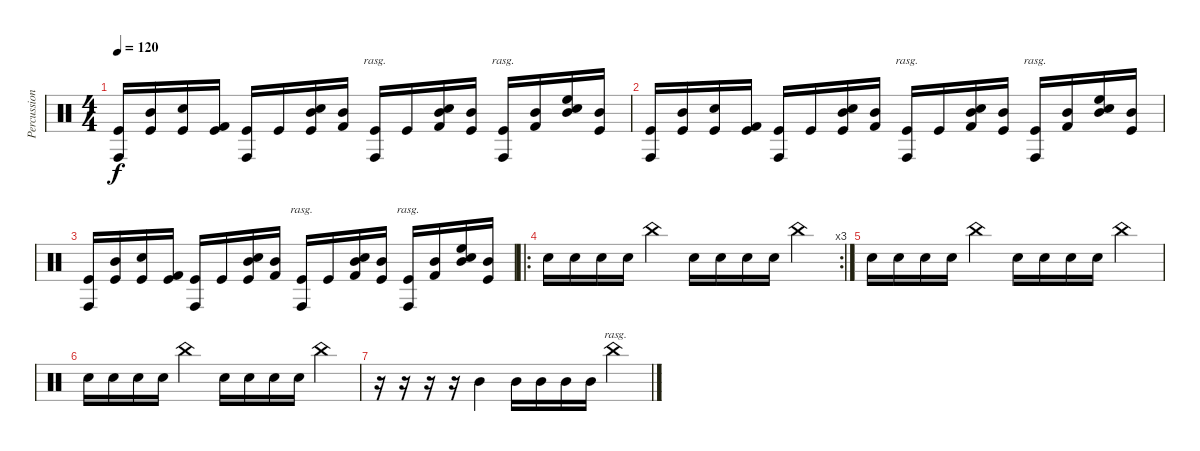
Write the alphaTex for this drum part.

\track ("Percussion" "Percussion") {instrument percussion}
\staff {score}
\articulation defaults
\ts (4 4)
\tempo 120
\clef neutral
\ks c
("Conga high (hit)" "Kick (hit)").16{dy f} ("Mid Tom (hit)" "Kick (hit)").16 ("Electric Snare (hit)" "Kick (hit)").16 ("Kick (hit) 2" "Kick (hit)").16{bd 480} ("Conga high (hit)" "Kick (hit)").16{bd 480} "Kick (hit)".16 ("Electric Snare (hit)" "Mid Tom (hit)" "Kick (hit)").16 ("Mid Tom (hit)" "Kick (hit) 2").16 ("Conga high (hit)" "Kick (hit)").16{bd 480 rasg ii} "Kick (hit)".16 ("Electric Snare (hit)" "Mid Tom (hit)" "Kick (hit) 2").16 ("Mid Tom (hit)" "Kick (hit)").16 ("Conga high (hit)" "Kick (hit)").16{bd 480 rasg ii} ("Mid Tom (hit)" "Kick (hit) 2").16 ("Electric Snare (hit)" "Mid Tom (hit)" "High Floor Tom (hit)").16 ("Mid Tom (hit)" "Kick (hit)").16 |
("Conga high (hit)" "Kick (hit)").16 ("Mid Tom (hit)" "Kick (hit)").16 ("Electric Snare (hit)" "Kick (hit)").16 ("Kick (hit) 2" "Kick (hit)").16{bd 480} ("Conga high (hit)" "Kick (hit)").16{bd 480} "Kick (hit)".16 ("Electric Snare (hit)" "Mid Tom (hit)" "Kick (hit)").16 ("Mid Tom (hit)" "Kick (hit) 2").16 ("Conga high (hit)" "Kick (hit)").16{bd 480 rasg ii} "Kick (hit)".16 ("Electric Snare (hit)" "Mid Tom (hit)" "Kick (hit) 2").16 ("Mid Tom (hit)" "Kick (hit)").16 ("Conga high (hit)" "Kick (hit)").16{bd 480 rasg ii} ("Mid Tom (hit)" "Kick (hit) 2").16 ("Electric Snare (hit)" "Mid Tom (hit)" "High Floor Tom (hit)").16 ("Mid Tom (hit)" "Kick (hit)").16 |
("Conga high (hit)" "Kick (hit)").16 ("Mid Tom (hit)" "Kick (hit)").16 ("Electric Snare (hit)" "Kick (hit)").16 ("Kick (hit) 2" "Kick (hit)").16{bd 480} ("Conga high (hit)" "Kick (hit)").16{bd 480} "Kick (hit)".16 ("Electric Snare (hit)" "Mid Tom (hit)" "Kick (hit)").16 ("Mid Tom (hit)" "Kick (hit) 2").16 ("Conga high (hit)" "Kick (hit)").16{bd 480 rasg ii} "Kick (hit)".16 ("Electric Snare (hit)" "Mid Tom (hit)" "Kick (hit) 2").16 ("Mid Tom (hit)" "Kick (hit)").16 ("Conga high (hit)" "Kick (hit)").16{bd 480 rasg ii} ("Mid Tom (hit)" "Kick (hit) 2").16 ("Electric Snare (hit)" "Mid Tom (hit)" "High Floor Tom (hit)").16 ("Mid Tom (hit)" "Kick (hit)").16 |
\ro
\rc 3 "Electric Snare (hit)".16 "Electric Snare (hit)".16 "Electric Snare (hit)".16 "Electric Snare (hit)".16 "China (hit)".4 "Electric Snare (hit)".16 "Electric Snare (hit)".16 "Electric Snare (hit)".16 "Electric Snare (hit)".16 "China (hit)".4
|
"Electric Snare (hit)".16 "Electric Snare (hit)".16 "Electric Snare (hit)".16 "Electric Snare (hit)".16 "China (hit)".4 "Electric Snare (hit)".16 "Electric Snare (hit)".16 "Electric Snare (hit)".16 "Electric Snare (hit)".16 "China (hit)".4 |
"Electric Snare (hit)".16 "Electric Snare (hit)".16 "Electric Snare (hit)".16 "Electric Snare (hit)".16 "China (hit)".4 "Electric Snare (hit)".16 "Electric Snare (hit)".16 "Electric Snare (hit)".16 "Electric Snare (hit)".16 "China (hit)".4 |
r.16 r.16 r.16 r.16 "Mid Tom (hit)".4 "Mid Tom (hit)".16 "Mid Tom (hit)".16 "Mid Tom (hit)".16 "Mid Tom (hit)".16 "China (hit)".4{bd 480 rasg ii}
